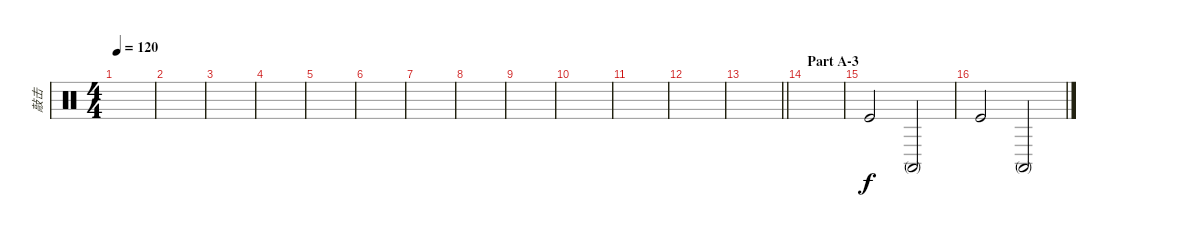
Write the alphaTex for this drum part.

\track ("敲击" "敲击") {instrument percussion}
\staff {score}
\articulation defaults
\ts (4 4)
\tempo 120
\clef neutral
\ks c
|
|
|
|
|
|
|
|
|
|
|
|
\barLineRight lightlight
|
\section ("" "Part A-3")
|
"Kick (hit)".2 "Conga high (mute)".2 |
"Kick (hit)".2 "Conga high (mute)".2
